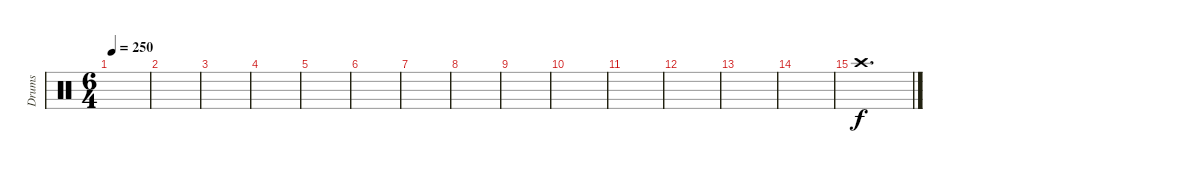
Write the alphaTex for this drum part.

\track ("Drums" "Drums") {instrument percussion}
\staff {score}
\articulation defaults
\ts (6 4)
\tempo 250
\clef neutral
\ks c
|
|
|
|
|
|
|
|
|
|
|
|
|
|
"Crash high (hit)".1{d}
